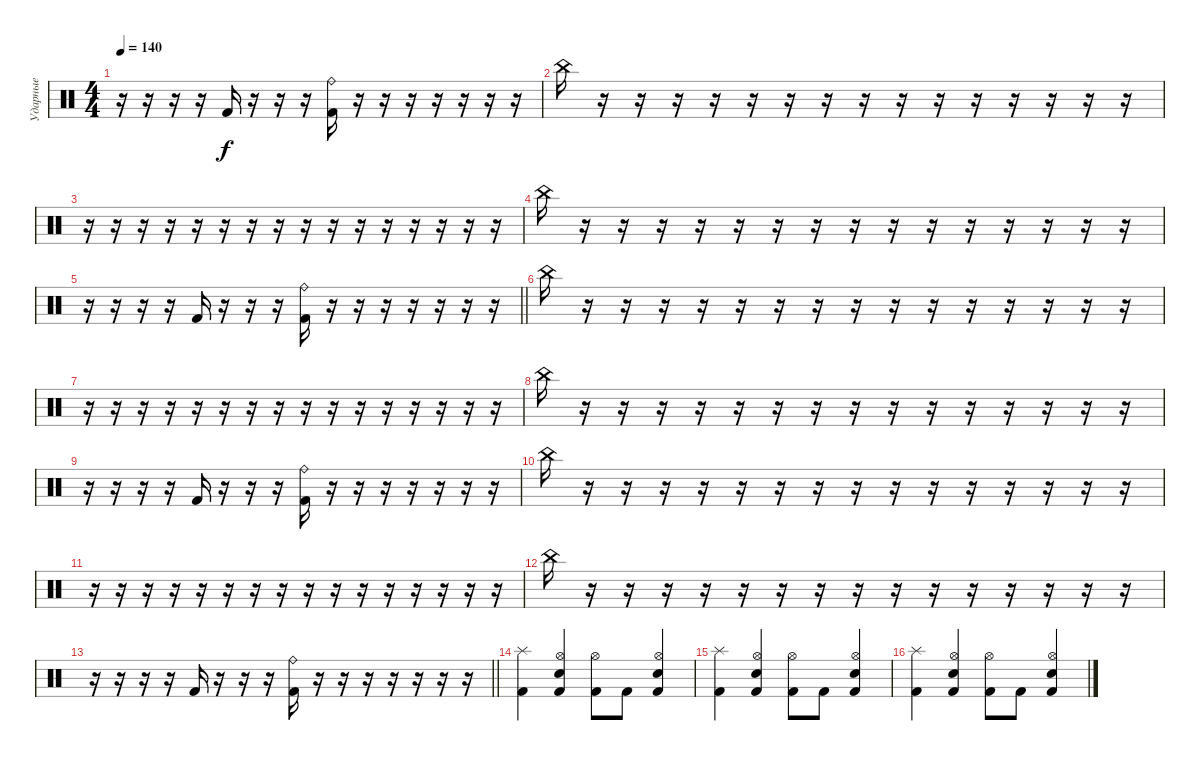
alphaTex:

\track ("Ударные" "Ударные") {instrument percussion}
\staff {score}
\articulation defaults
\ts (4 4)
\tempo 140
\clef neutral
\ks c
r.16{dy f} r.16 r.16 r.16 "Kick (hit) 2".16 r.16 r.16 r.16 ("Ride (bell)" "Kick (hit) 2").16 r.16 r.16 r.16 r.16 r.16 r.16 r.16 |
"China (hit)".16 r.16 r.16 r.16 r.16 r.16 r.16 r.16 r.16 r.16 r.16 r.16 r.16 r.16 r.16 r.16 |
r.16 r.16 r.16 r.16 r.16 r.16 r.16 r.16 r.16 r.16 r.16 r.16 r.16 r.16 r.16 r.16 |
"China (hit)".16 r.16 r.16 r.16 r.16 r.16 r.16 r.16 r.16 r.16 r.16 r.16 r.16 r.16 r.16 r.16 |
\barLineRight lightlight
r.16 r.16 r.16 r.16 "Kick (hit) 2".16 r.16 r.16 r.16 ("Ride (bell)" "Kick (hit) 2").16 r.16 r.16 r.16 r.16 r.16 r.16 r.16 |
"China (hit)".16 r.16 r.16 r.16 r.16 r.16 r.16 r.16 r.16 r.16 r.16 r.16 r.16 r.16 r.16 r.16 |
r.16 r.16 r.16 r.16 r.16 r.16 r.16 r.16 r.16 r.16 r.16 r.16 r.16 r.16 r.16 r.16 |
"China (hit)".16 r.16 r.16 r.16 r.16 r.16 r.16 r.16 r.16 r.16 r.16 r.16 r.16 r.16 r.16 r.16 |
r.16 r.16 r.16 r.16 "Kick (hit) 2".16 r.16 r.16 r.16 ("Ride (bell)" "Kick (hit) 2").16 r.16 r.16 r.16 r.16 r.16 r.16 r.16 |
"China (hit)".16 r.16 r.16 r.16 r.16 r.16 r.16 r.16 r.16 r.16 r.16 r.16 r.16 r.16 r.16 r.16 |
r.16 r.16 r.16 r.16 r.16 r.16 r.16 r.16 r.16 r.16 r.16 r.16 r.16 r.16 r.16 r.16 |
"China (hit)".16 r.16 r.16 r.16 r.16 r.16 r.16 r.16 r.16 r.16 r.16 r.16 r.16 r.16 r.16 r.16 |
\barLineRight lightlight
r.16 r.16 r.16 r.16 "Kick (hit) 2".16 r.16 r.16 r.16 ("Ride (bell)" "Kick (hit) 2").16 r.16 r.16 r.16 r.16 r.16 r.16 r.16 |
("Splash (hit)" "Kick (hit) 2").4 ("Hi-Hat (open)" "Electric Snare (hit)" "Kick (hit) 2").4 ("Hi-Hat (open)" "Kick (hit) 2").8 "Kick (hit) 2".8 ("Hi-Hat (open)" "Electric Snare (hit)" "Kick (hit) 2").4 |
("Splash (hit)" "Kick (hit) 2").4 ("Hi-Hat (open)" "Electric Snare (hit)" "Kick (hit) 2").4 ("Hi-Hat (open)" "Kick (hit) 2").8 "Kick (hit) 2".8 ("Hi-Hat (open)" "Electric Snare (hit)" "Kick (hit) 2").4 |
("Splash (hit)" "Kick (hit) 2").4 ("Hi-Hat (open)" "Electric Snare (hit)" "Kick (hit) 2").4 ("Hi-Hat (open)" "Kick (hit) 2").8 "Kick (hit) 2".8 ("Hi-Hat (open)" "Electric Snare (hit)" "Kick (hit) 2").4
